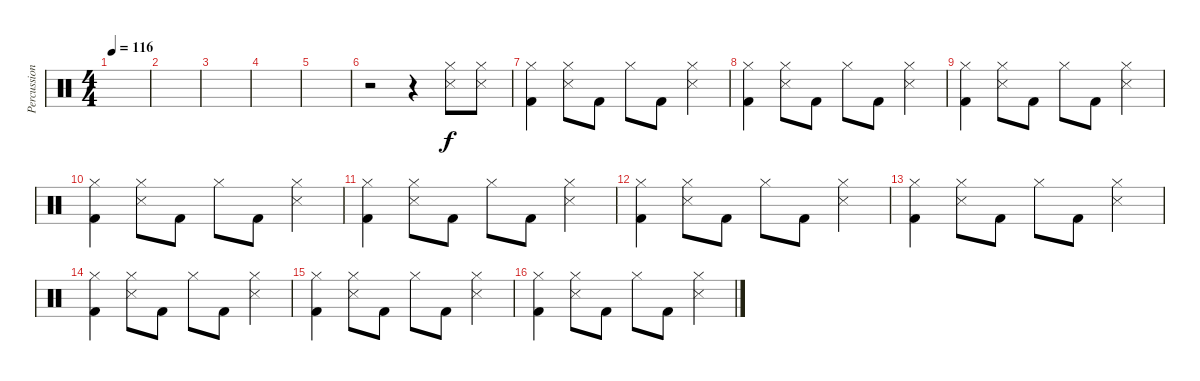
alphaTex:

\track ("Percussions" "Percussion") {instrument percussion}
\staff {score}
\articulation defaults
\ts (4 4)
\tempo 116
\clef neutral
\ks c
|
|
|
|
|
r.2 r.4 ("Hi-Hat (closed)" "Snare (side stick) 3").8 ("Hi-Hat (closed)" "Snare (side stick) 3").8 |
("Hi-Hat (closed)" "Kick (hit) 2").4 ("Hi-Hat (closed)" "Snare (side stick) 3").8 "Kick (hit) 2".8 "Hi-Hat (closed)".8 "Kick (hit) 2".8 ("Hi-Hat (closed)" "Snare (side stick) 3").4 |
("Hi-Hat (closed)" "Kick (hit) 2").4 ("Hi-Hat (closed)" "Snare (side stick) 3").8 "Kick (hit) 2".8 "Hi-Hat (closed)".8 "Kick (hit) 2".8 ("Hi-Hat (closed)" "Snare (side stick) 3").4 |
("Hi-Hat (closed)" "Kick (hit) 2").4 ("Hi-Hat (closed)" "Snare (side stick) 3").8 "Kick (hit) 2".8 "Hi-Hat (closed)".8 "Kick (hit) 2".8 ("Hi-Hat (closed)" "Snare (side stick) 3").4 |
("Hi-Hat (closed)" "Kick (hit) 2").4 ("Hi-Hat (closed)" "Snare (side stick) 3").8 "Kick (hit) 2".8 "Hi-Hat (closed)".8 "Kick (hit) 2".8 ("Hi-Hat (closed)" "Snare (side stick) 3").4 |
("Hi-Hat (closed)" "Kick (hit) 2").4 ("Hi-Hat (closed)" "Snare (side stick) 3").8 "Kick (hit) 2".8 "Hi-Hat (closed)".8 "Kick (hit) 2".8 ("Hi-Hat (closed)" "Snare (side stick) 3").4 |
("Hi-Hat (closed)" "Kick (hit) 2").4 ("Hi-Hat (closed)" "Snare (side stick) 3").8 "Kick (hit) 2".8 "Hi-Hat (closed)".8 "Kick (hit) 2".8 ("Hi-Hat (closed)" "Snare (side stick) 3").4 |
("Hi-Hat (closed)" "Kick (hit) 2").4 ("Hi-Hat (closed)" "Snare (side stick) 3").8 "Kick (hit) 2".8 "Hi-Hat (closed)".8 "Kick (hit) 2".8 ("Hi-Hat (closed)" "Snare (side stick) 3").4 |
("Hi-Hat (closed)" "Kick (hit) 2").4 ("Hi-Hat (closed)" "Snare (side stick) 3").8 "Kick (hit) 2".8 "Hi-Hat (closed)".8 "Kick (hit) 2".8 ("Hi-Hat (closed)" "Snare (side stick) 3").4 |
("Hi-Hat (closed)" "Kick (hit) 2").4 ("Hi-Hat (closed)" "Snare (side stick) 3").8 "Kick (hit) 2".8 "Hi-Hat (closed)".8 "Kick (hit) 2".8 ("Hi-Hat (closed)" "Snare (side stick) 3").4 |
("Hi-Hat (closed)" "Kick (hit) 2").4 ("Hi-Hat (closed)" "Snare (side stick) 3").8 "Kick (hit) 2".8 "Hi-Hat (closed)".8 "Kick (hit) 2".8 ("Hi-Hat (closed)" "Snare (side stick) 3").4
